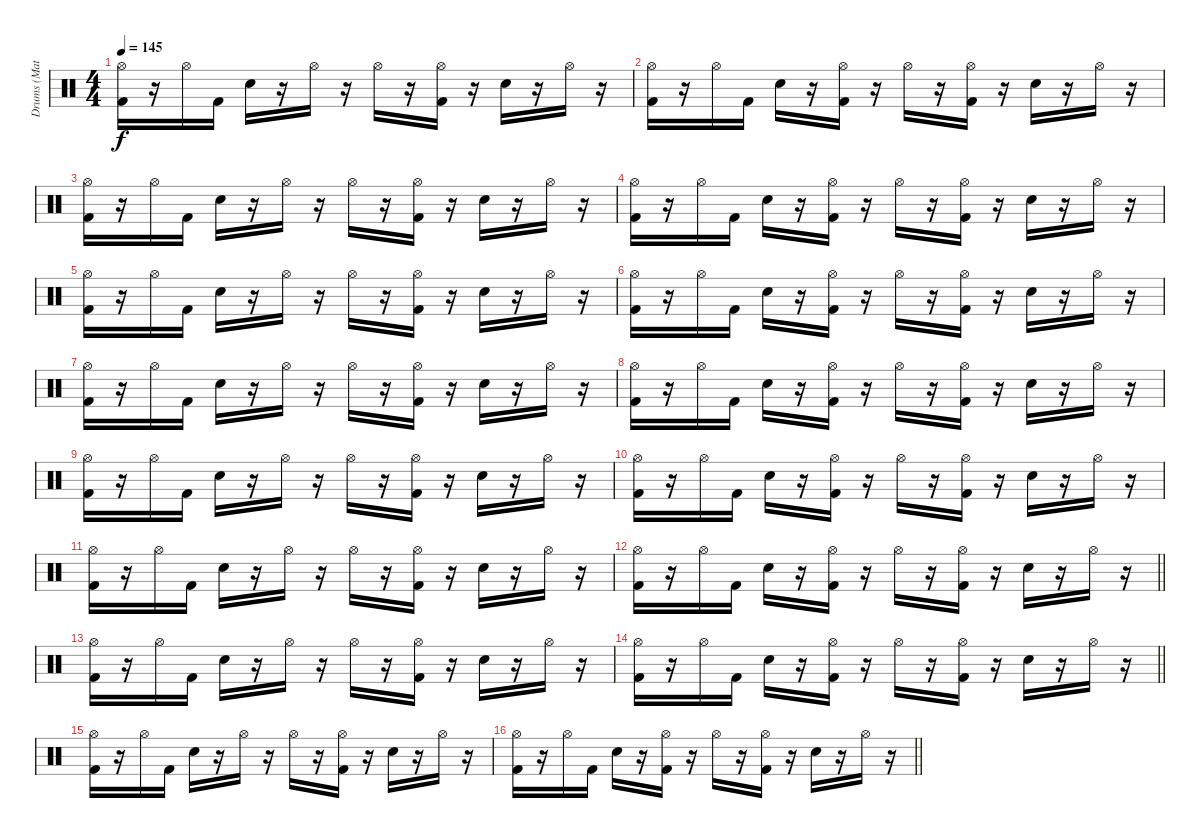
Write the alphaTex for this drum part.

\track ("Drums (Matt)" "Drums (Mat") {instrument percussion}
\staff {score}
\articulation defaults
\ts (4 4)
\tempo 145
\clef neutral
\ks c
("Hi-Hat (open)" "Kick (hit) 2").16{dy f} r.16 "Hi-Hat (open)".16 "Kick (hit) 2".16 "Electric Snare (hit)".16 r.16 "Hi-Hat (open)".16 r.16 "Hi-Hat (open)".16 r.16 ("Hi-Hat (open)" "Kick (hit) 2").16 r.16 "Electric Snare (hit)".16 r.16 "Hi-Hat (open)".16 r.16 |
("Hi-Hat (open)" "Kick (hit) 2").16 r.16 "Hi-Hat (open)".16 "Kick (hit) 2".16 "Electric Snare (hit)".16 r.16 ("Hi-Hat (open)" "Kick (hit) 2").16 r.16 "Hi-Hat (open)".16 r.16 ("Hi-Hat (open)" "Kick (hit) 2").16 r.16 "Electric Snare (hit)".16 r.16 "Hi-Hat (open)".16 r.16 |
("Hi-Hat (open)" "Kick (hit) 2").16 r.16 "Hi-Hat (open)".16 "Kick (hit) 2".16 "Electric Snare (hit)".16 r.16 "Hi-Hat (open)".16 r.16 "Hi-Hat (open)".16 r.16 ("Hi-Hat (open)" "Kick (hit) 2").16 r.16 "Electric Snare (hit)".16 r.16 "Hi-Hat (open)".16 r.16 |
("Hi-Hat (open)" "Kick (hit) 2").16 r.16 "Hi-Hat (open)".16 "Kick (hit) 2".16 "Electric Snare (hit)".16 r.16 ("Hi-Hat (open)" "Kick (hit) 2").16 r.16 "Hi-Hat (open)".16 r.16 ("Hi-Hat (open)" "Kick (hit) 2").16 r.16 "Electric Snare (hit)".16 r.16 "Hi-Hat (open)".16 r.16 |
("Hi-Hat (open)" "Kick (hit) 2").16 r.16 "Hi-Hat (open)".16 "Kick (hit) 2".16 "Electric Snare (hit)".16 r.16 "Hi-Hat (open)".16 r.16 "Hi-Hat (open)".16 r.16 ("Hi-Hat (open)" "Kick (hit) 2").16 r.16 "Electric Snare (hit)".16 r.16 "Hi-Hat (open)".16 r.16 |
("Hi-Hat (open)" "Kick (hit) 2").16 r.16 "Hi-Hat (open)".16 "Kick (hit) 2".16 "Electric Snare (hit)".16 r.16 ("Hi-Hat (open)" "Kick (hit) 2").16 r.16 "Hi-Hat (open)".16 r.16 ("Hi-Hat (open)" "Kick (hit) 2").16 r.16 "Electric Snare (hit)".16 r.16 "Hi-Hat (open)".16 r.16 |
("Hi-Hat (open)" "Kick (hit) 2").16 r.16 "Hi-Hat (open)".16 "Kick (hit) 2".16 "Electric Snare (hit)".16 r.16 "Hi-Hat (open)".16 r.16 "Hi-Hat (open)".16 r.16 ("Hi-Hat (open)" "Kick (hit) 2").16 r.16 "Electric Snare (hit)".16 r.16 "Hi-Hat (open)".16 r.16 |
("Hi-Hat (open)" "Kick (hit) 2").16 r.16 "Hi-Hat (open)".16 "Kick (hit) 2".16 "Electric Snare (hit)".16 r.16 ("Hi-Hat (open)" "Kick (hit) 2").16 r.16 "Hi-Hat (open)".16 r.16 ("Hi-Hat (open)" "Kick (hit) 2").16 r.16 "Electric Snare (hit)".16 r.16 "Hi-Hat (open)".16 r.16 |
("Hi-Hat (open)" "Kick (hit) 2").16 r.16 "Hi-Hat (open)".16 "Kick (hit) 2".16 "Electric Snare (hit)".16 r.16 "Hi-Hat (open)".16 r.16 "Hi-Hat (open)".16 r.16 ("Hi-Hat (open)" "Kick (hit) 2").16 r.16 "Electric Snare (hit)".16 r.16 "Hi-Hat (open)".16 r.16 |
("Hi-Hat (open)" "Kick (hit) 2").16 r.16 "Hi-Hat (open)".16 "Kick (hit) 2".16 "Electric Snare (hit)".16 r.16 ("Hi-Hat (open)" "Kick (hit) 2").16 r.16 "Hi-Hat (open)".16 r.16 ("Hi-Hat (open)" "Kick (hit) 2").16 r.16 "Electric Snare (hit)".16 r.16 "Hi-Hat (open)".16 r.16 |
("Hi-Hat (open)" "Kick (hit) 2").16 r.16 "Hi-Hat (open)".16 "Kick (hit) 2".16 "Electric Snare (hit)".16 r.16 "Hi-Hat (open)".16 r.16 "Hi-Hat (open)".16 r.16 ("Hi-Hat (open)" "Kick (hit) 2").16 r.16 "Electric Snare (hit)".16 r.16 "Hi-Hat (open)".16 r.16 |
\barLineRight lightlight
("Hi-Hat (open)" "Kick (hit) 2").16 r.16 "Hi-Hat (open)".16 "Kick (hit) 2".16 "Electric Snare (hit)".16 r.16 ("Hi-Hat (open)" "Kick (hit) 2").16 r.16 "Hi-Hat (open)".16 r.16 ("Hi-Hat (open)" "Kick (hit) 2").16 r.16 "Electric Snare (hit)".16 r.16 "Hi-Hat (open)".16 r.16 |
("Hi-Hat (open)" "Kick (hit) 2").16 r.16 "Hi-Hat (open)".16 "Kick (hit) 2".16 "Electric Snare (hit)".16 r.16 "Hi-Hat (open)".16 r.16 "Hi-Hat (open)".16 r.16 ("Hi-Hat (open)" "Kick (hit) 2").16 r.16 "Electric Snare (hit)".16 r.16 "Hi-Hat (open)".16 r.16 |
\barLineRight lightlight
("Hi-Hat (open)" "Kick (hit) 2").16 r.16 "Hi-Hat (open)".16 "Kick (hit) 2".16 "Electric Snare (hit)".16 r.16 ("Hi-Hat (open)" "Kick (hit) 2").16 r.16 "Hi-Hat (open)".16 r.16 ("Hi-Hat (open)" "Kick (hit) 2").16 r.16 "Electric Snare (hit)".16 r.16 "Hi-Hat (open)".16 r.16 |
("Hi-Hat (open)" "Kick (hit) 2").16 r.16 "Hi-Hat (open)".16 "Kick (hit) 2".16 "Electric Snare (hit)".16 r.16 "Hi-Hat (open)".16 r.16 "Hi-Hat (open)".16 r.16 ("Hi-Hat (open)" "Kick (hit) 2").16 r.16 "Electric Snare (hit)".16 r.16 "Hi-Hat (open)".16 r.16 |
\barLineRight lightlight
("Hi-Hat (open)" "Kick (hit) 2").16 r.16 "Hi-Hat (open)".16 "Kick (hit) 2".16 "Electric Snare (hit)".16 r.16 ("Hi-Hat (open)" "Kick (hit) 2").16 r.16 "Hi-Hat (open)".16 r.16 ("Hi-Hat (open)" "Kick (hit) 2").16 r.16 "Electric Snare (hit)".16 r.16 "Hi-Hat (open)".16 r.16
